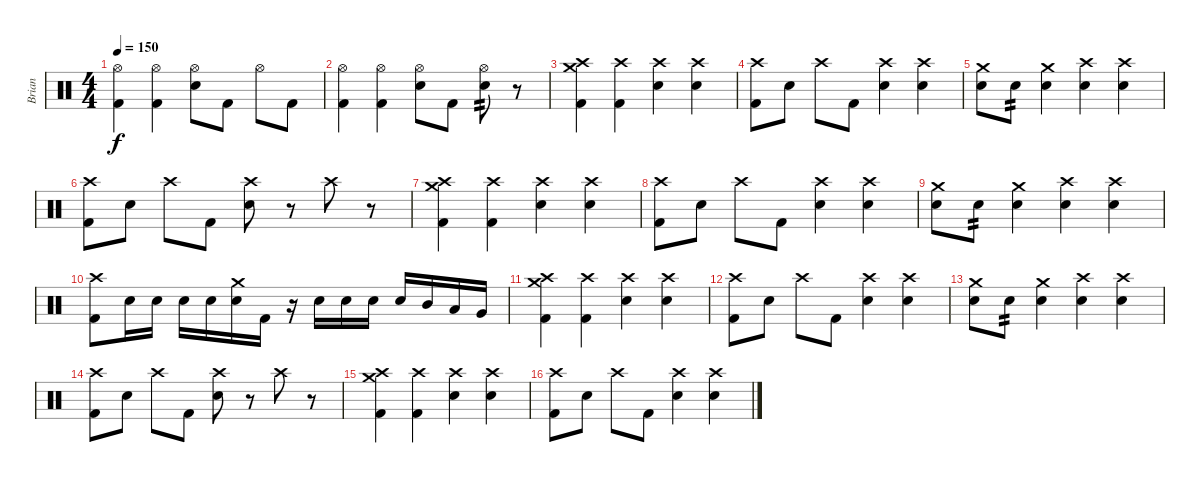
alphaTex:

\track ("Brian" "Brian") {instrument percussion}
\staff {score}
\articulation defaults
\ts (4 4)
\tempo 150
\clef neutral
\ks c
("Hi-Hat (open)" "Kick (hit) 2").4{dy f} ("Hi-Hat (open)" "Kick (hit) 2").4 ("Hi-Hat (open)" "Snare (hit) 2").8 "Kick (hit) 2".8 "Hi-Hat (open)".8 "Kick (hit) 2".8 |
("Hi-Hat (open)" "Kick (hit) 2").4 ("Hi-Hat (open)" "Kick (hit) 2").4 ("Hi-Hat (open)" "Snare (hit) 2").8 "Kick (hit) 2".8 ("Hi-Hat (open)" "Snare (hit) 2").8{tp 2} r.8 |
("Crash high (hit)" "Crash medium (hit)" "Kick (hit) 2").4 ("Crash high (hit)" "Kick (hit) 2").4 ("Crash high (hit)" "Snare (hit) 2").4 ("Crash high (hit)" "Snare (hit) 2").4 |
("Crash high (hit)" "Kick (hit) 2").8 "Snare (hit) 2".8 "Crash high (hit)".8 "Kick (hit) 2".8 ("Crash high (hit)" "Snare (hit) 2").4 ("Crash high (hit)" "Snare (hit) 2").4 |
("Crash medium (hit)" "Snare (hit) 2").8 "Snare (hit) 2".8{tp 2} ("Crash medium (hit)" "Snare (hit) 2").4 ("Crash high (hit)" "Snare (hit) 2").4 ("Crash high (hit)" "Snare (hit) 2").4 |
("Crash high (hit)" "Kick (hit) 2").8 "Snare (hit) 2".8 "Crash high (hit)".8 "Kick (hit) 2".8 ("Crash high (hit)" "Snare (hit) 2").8 r.8 "Crash high (hit)".8 r.8 |
("Crash high (hit)" "Crash medium (hit)" "Kick (hit) 2").4 ("Crash high (hit)" "Kick (hit) 2").4 ("Crash high (hit)" "Snare (hit) 2").4 ("Crash high (hit)" "Snare (hit) 2").4 |
("Crash high (hit)" "Kick (hit) 2").8 "Snare (hit) 2".8 "Crash high (hit)".8 "Kick (hit) 2".8 ("Crash high (hit)" "Snare (hit) 2").4 ("Crash high (hit)" "Snare (hit) 2").4 |
("Crash medium (hit)" "Snare (hit) 2").8 "Snare (hit) 2".8{tp 2} ("Crash medium (hit)" "Snare (hit) 2").4 ("Crash high (hit)" "Snare (hit) 2").4 ("Crash high (hit)" "Snare (hit) 2").4 |
("Crash high (hit)" "Kick (hit) 2").8 "Snare (hit) 2".16 "Snare (hit) 2".16 "Snare (hit) 2".16 "Snare (hit) 2".16 ("Crash medium (hit)" "Snare (hit) 2").16 "Kick (hit) 2".16 r.16 "Snare (hit) 2".16 "Snare (hit) 2".16 "Snare (hit) 2".16 "Snare (hit) 2".16 "Mid Tom (hit)".16 "Low Tom (hit)".16 "Very Low Tom (hit)".16 |
("Crash high (hit)" "Crash medium (hit)" "Kick (hit) 2").4 ("Crash high (hit)" "Kick (hit) 2").4 ("Crash high (hit)" "Snare (hit) 2").4 ("Crash high (hit)" "Snare (hit) 2").4 |
("Crash high (hit)" "Kick (hit) 2").8 "Snare (hit) 2".8 "Crash high (hit)".8 "Kick (hit) 2".8 ("Crash high (hit)" "Snare (hit) 2").4 ("Crash high (hit)" "Snare (hit) 2").4 |
("Crash medium (hit)" "Snare (hit) 2").8 "Snare (hit) 2".8{tp 2} ("Crash medium (hit)" "Snare (hit) 2").4 ("Crash high (hit)" "Snare (hit) 2").4 ("Crash high (hit)" "Snare (hit) 2").4 |
("Crash high (hit)" "Kick (hit) 2").8 "Snare (hit) 2".8 "Crash high (hit)".8 "Kick (hit) 2".8 ("Crash high (hit)" "Snare (hit) 2").8 r.8 "Crash high (hit)".8 r.8 |
("Crash high (hit)" "Crash medium (hit)" "Kick (hit) 2").4 ("Crash high (hit)" "Kick (hit) 2").4 ("Crash high (hit)" "Snare (hit) 2").4 ("Crash high (hit)" "Snare (hit) 2").4 |
("Crash high (hit)" "Kick (hit) 2").8 "Snare (hit) 2".8 "Crash high (hit)".8 "Kick (hit) 2".8 ("Crash high (hit)" "Snare (hit) 2").4 ("Crash high (hit)" "Snare (hit) 2").4
